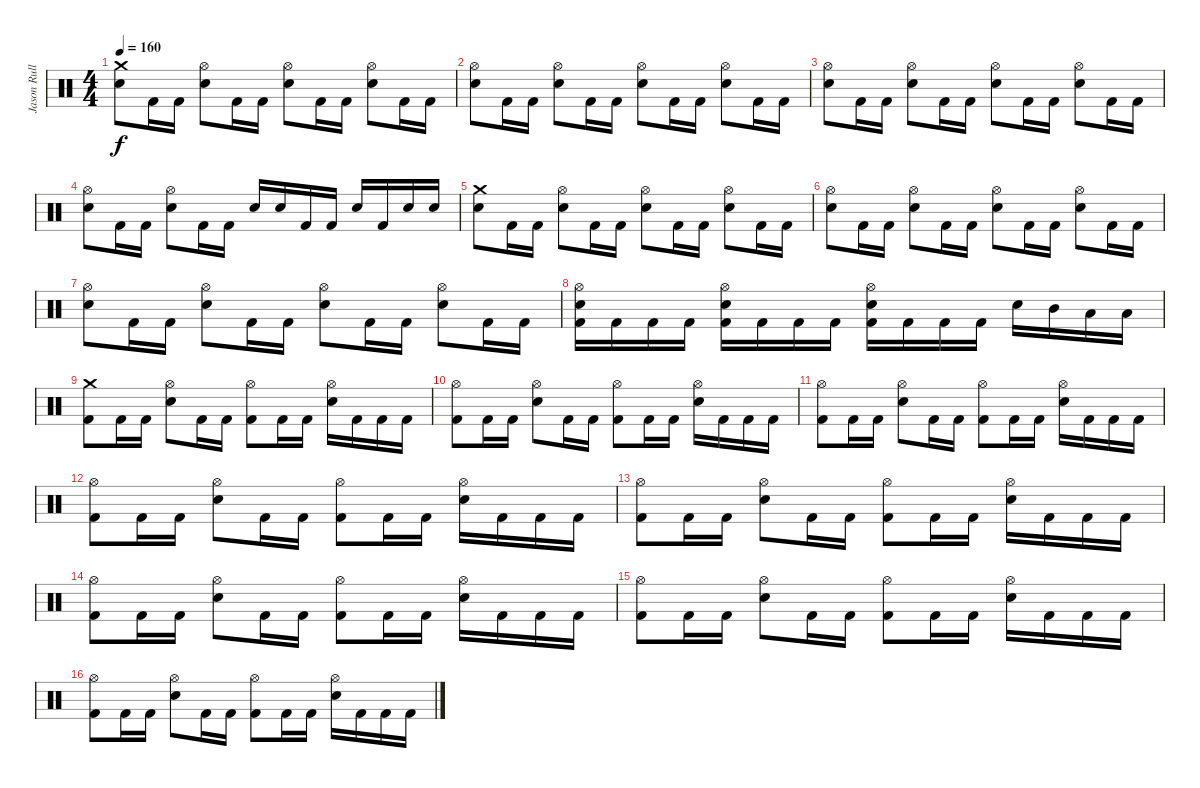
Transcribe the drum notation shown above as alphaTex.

\track ("Jason Rullo" "Jason Rull") {instrument percussion}
\staff {score}
\articulation defaults
\ts (4 4)
\tempo 160
\clef neutral
\ks c
("Electric Snare (hit)" "Crash medium (hit)").8{dy f} "Kick (hit) 2".16 "Kick (hit) 2".16 ("Electric Snare (hit)" "Hi-Hat (open)").8 "Kick (hit) 2".16 "Kick (hit) 2".16 ("Electric Snare (hit)" "Hi-Hat (open)").8 "Kick (hit) 2".16 "Kick (hit) 2".16 ("Electric Snare (hit)" "Hi-Hat (open)").8 "Kick (hit) 2".16 "Kick (hit) 2".16 |
("Hi-Hat (open)" "Electric Snare (hit)").8 "Kick (hit) 2".16 "Kick (hit) 2".16 ("Electric Snare (hit)" "Hi-Hat (open)").8 "Kick (hit) 2".16 "Kick (hit) 2".16 ("Electric Snare (hit)" "Hi-Hat (open)").8 "Kick (hit) 2".16 "Kick (hit) 2".16 ("Electric Snare (hit)" "Hi-Hat (open)").8 "Kick (hit) 2".16 "Kick (hit) 2".16 |
("Hi-Hat (open)" "Electric Snare (hit)").8 "Kick (hit) 2".16 "Kick (hit) 2".16 ("Electric Snare (hit)" "Hi-Hat (open)").8 "Kick (hit) 2".16 "Kick (hit) 2".16 ("Electric Snare (hit)" "Hi-Hat (open)").8 "Kick (hit) 2".16 "Kick (hit) 2".16 ("Electric Snare (hit)" "Hi-Hat (open)").8 "Kick (hit) 2".16 "Kick (hit) 2".16 |
("Hi-Hat (open)" "Electric Snare (hit)").8 "Kick (hit) 2".16 "Kick (hit) 2".16 ("Electric Snare (hit)" "Hi-Hat (open)").8 "Kick (hit) 2".16 "Kick (hit) 2".16 "Electric Snare (hit)".16 "Electric Snare (hit)".16 "Kick (hit) 2".16 "Kick (hit) 2".16 "Electric Snare (hit)".16 "Kick (hit) 2".16 "Electric Snare (hit)".16 "Electric Snare (hit)".16 |
("Electric Snare (hit)" "Crash medium (hit)").8 "Kick (hit) 2".16 "Kick (hit) 2".16 ("Electric Snare (hit)" "Hi-Hat (open)").8 "Kick (hit) 2".16 "Kick (hit) 2".16 ("Electric Snare (hit)" "Hi-Hat (open)").8 "Kick (hit) 2".16 "Kick (hit) 2".16 ("Electric Snare (hit)" "Hi-Hat (open)").8 "Kick (hit) 2".16 "Kick (hit) 2".16 |
("Hi-Hat (open)" "Electric Snare (hit)").8 "Kick (hit) 2".16 "Kick (hit) 2".16 ("Electric Snare (hit)" "Hi-Hat (open)").8 "Kick (hit) 2".16 "Kick (hit) 2".16 ("Electric Snare (hit)" "Hi-Hat (open)").8 "Kick (hit) 2".16 "Kick (hit) 2".16 ("Electric Snare (hit)" "Hi-Hat (open)").8 "Kick (hit) 2".16 "Kick (hit) 2".16 |
("Hi-Hat (open)" "Electric Snare (hit)").8 "Kick (hit) 2".16 "Kick (hit) 2".16 ("Electric Snare (hit)" "Hi-Hat (open)").8 "Kick (hit) 2".16 "Kick (hit) 2".16 ("Electric Snare (hit)" "Hi-Hat (open)").8 "Kick (hit) 2".16 "Kick (hit) 2".16 ("Electric Snare (hit)" "Hi-Hat (open)").8 "Kick (hit) 2".16 "Kick (hit) 2".16 |
("Kick (hit) 2" "Hi-Hat (open)" "Electric Snare (hit)").16 "Kick (hit) 2".16 "Kick (hit) 2".16 "Kick (hit) 2".16 ("Kick (hit) 2" "Electric Snare (hit)" "Hi-Hat (open)").16 "Kick (hit) 2".16 "Kick (hit) 2".16 "Kick (hit) 2".16 ("Hi-Hat (open)" "Electric Snare (hit)" "Kick (hit) 2").16 "Kick (hit) 2".16 "Kick (hit) 2".16 "Kick (hit) 2".16 "Electric Snare (hit)".16 "Mid Tom (hit)".16 "Low Tom (hit)".16 "Low Floor Tom (hit)".16 |
("Crash medium (hit)" "Kick (hit) 2").8 "Kick (hit) 2".16 "Kick (hit) 2".16 ("Hi-Hat (open)" "Electric Snare (hit)").8 "Kick (hit) 2".16 "Kick (hit) 2".16 ("Hi-Hat (open)" "Kick (hit) 2").8 "Kick (hit) 2".16 "Kick (hit) 2".16 ("Hi-Hat (open)" "Electric Snare (hit)").16 "Kick (hit) 2".16 "Kick (hit) 2".16 "Kick (hit) 2".16 |
("Hi-Hat (open)" "Kick (hit) 2").8 "Kick (hit) 2".16 "Kick (hit) 2".16 ("Hi-Hat (open)" "Electric Snare (hit)").8 "Kick (hit) 2".16 "Kick (hit) 2".16 ("Hi-Hat (open)" "Kick (hit) 2").8 "Kick (hit) 2".16 "Kick (hit) 2".16 ("Hi-Hat (open)" "Electric Snare (hit)").16 "Kick (hit) 2".16 "Kick (hit) 2".16 "Kick (hit) 2".16 |
("Hi-Hat (open)" "Kick (hit) 2").8 "Kick (hit) 2".16 "Kick (hit) 2".16 ("Hi-Hat (open)" "Electric Snare (hit)").8 "Kick (hit) 2".16 "Kick (hit) 2".16 ("Hi-Hat (open)" "Kick (hit) 2").8 "Kick (hit) 2".16 "Kick (hit) 2".16 ("Hi-Hat (open)" "Electric Snare (hit)").16 "Kick (hit) 2".16 "Kick (hit) 2".16 "Kick (hit) 2".16 |
("Hi-Hat (open)" "Kick (hit) 2").8 "Kick (hit) 2".16 "Kick (hit) 2".16 ("Hi-Hat (open)" "Electric Snare (hit)").8 "Kick (hit) 2".16 "Kick (hit) 2".16 ("Hi-Hat (open)" "Kick (hit) 2").8 "Kick (hit) 2".16 "Kick (hit) 2".16 ("Hi-Hat (open)" "Electric Snare (hit)").16 "Kick (hit) 2".16 "Kick (hit) 2".16 "Kick (hit) 2".16 |
("Hi-Hat (open)" "Kick (hit) 2").8 "Kick (hit) 2".16 "Kick (hit) 2".16 ("Hi-Hat (open)" "Electric Snare (hit)").8 "Kick (hit) 2".16 "Kick (hit) 2".16 ("Hi-Hat (open)" "Kick (hit) 2").8 "Kick (hit) 2".16 "Kick (hit) 2".16 ("Hi-Hat (open)" "Electric Snare (hit)").16 "Kick (hit) 2".16 "Kick (hit) 2".16 "Kick (hit) 2".16 |
("Hi-Hat (open)" "Kick (hit) 2").8 "Kick (hit) 2".16 "Kick (hit) 2".16 ("Hi-Hat (open)" "Electric Snare (hit)").8 "Kick (hit) 2".16 "Kick (hit) 2".16 ("Hi-Hat (open)" "Kick (hit) 2").8 "Kick (hit) 2".16 "Kick (hit) 2".16 ("Hi-Hat (open)" "Electric Snare (hit)").16 "Kick (hit) 2".16 "Kick (hit) 2".16 "Kick (hit) 2".16 |
("Hi-Hat (open)" "Kick (hit) 2").8 "Kick (hit) 2".16 "Kick (hit) 2".16 ("Hi-Hat (open)" "Electric Snare (hit)").8 "Kick (hit) 2".16 "Kick (hit) 2".16 ("Hi-Hat (open)" "Kick (hit) 2").8 "Kick (hit) 2".16 "Kick (hit) 2".16 ("Hi-Hat (open)" "Electric Snare (hit)").16 "Kick (hit) 2".16 "Kick (hit) 2".16 "Kick (hit) 2".16 |
("Hi-Hat (open)" "Kick (hit) 2").8 "Kick (hit) 2".16 "Kick (hit) 2".16 ("Hi-Hat (open)" "Electric Snare (hit)").8 "Kick (hit) 2".16 "Kick (hit) 2".16 ("Hi-Hat (open)" "Kick (hit) 2").8 "Kick (hit) 2".16 "Kick (hit) 2".16 ("Hi-Hat (open)" "Electric Snare (hit)").16 "Kick (hit) 2".16 "Kick (hit) 2".16 "Kick (hit) 2".16
